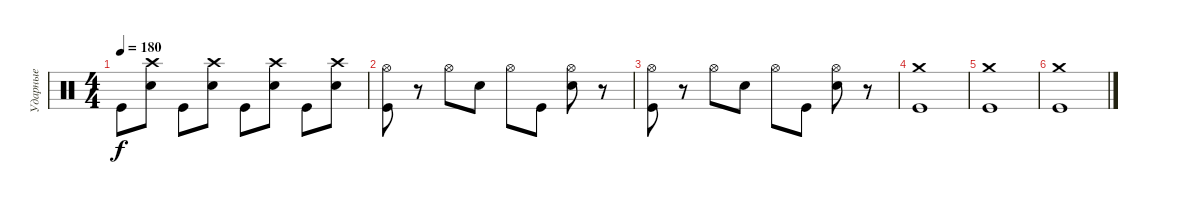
\track ("Ударные" "Ударные") {instrument percussion}
\staff {score}
\articulation defaults
\ts (4 4)
\tempo 180
\clef neutral
\ks c "Kick (hit)".8{dy f}
("Crash high (hit)" "Electric Snare (hit)").8 "Kick (hit)".8 ("Crash high (hit)" "Electric Snare (hit)").8 "Kick (hit)".8 ("Crash high (hit)" "Electric Snare (hit)").8 "Kick (hit)".8 ("Crash high (hit)" "Electric Snare (hit)").8 |
("Hi-Hat (open)" "Kick (hit)").8 r.8 "Hi-Hat (open)".8 "Electric Snare (hit)".8 "Hi-Hat (open)".8 "Kick (hit)".8 ("Hi-Hat (open)" "Electric Snare (hit)").8 r.8 |
("Hi-Hat (open)" "Kick (hit)").8 r.8 "Hi-Hat (open)".8 "Electric Snare (hit)".8 "Hi-Hat (open)".8 "Kick (hit)".8 ("Hi-Hat (open)" "Electric Snare (hit)").8 r.8 |
("Crash medium (hit)" "Kick (hit)").1 |
("Crash medium (hit)" "Kick (hit)").1 |
("Crash medium (hit)" "Kick (hit)").1
